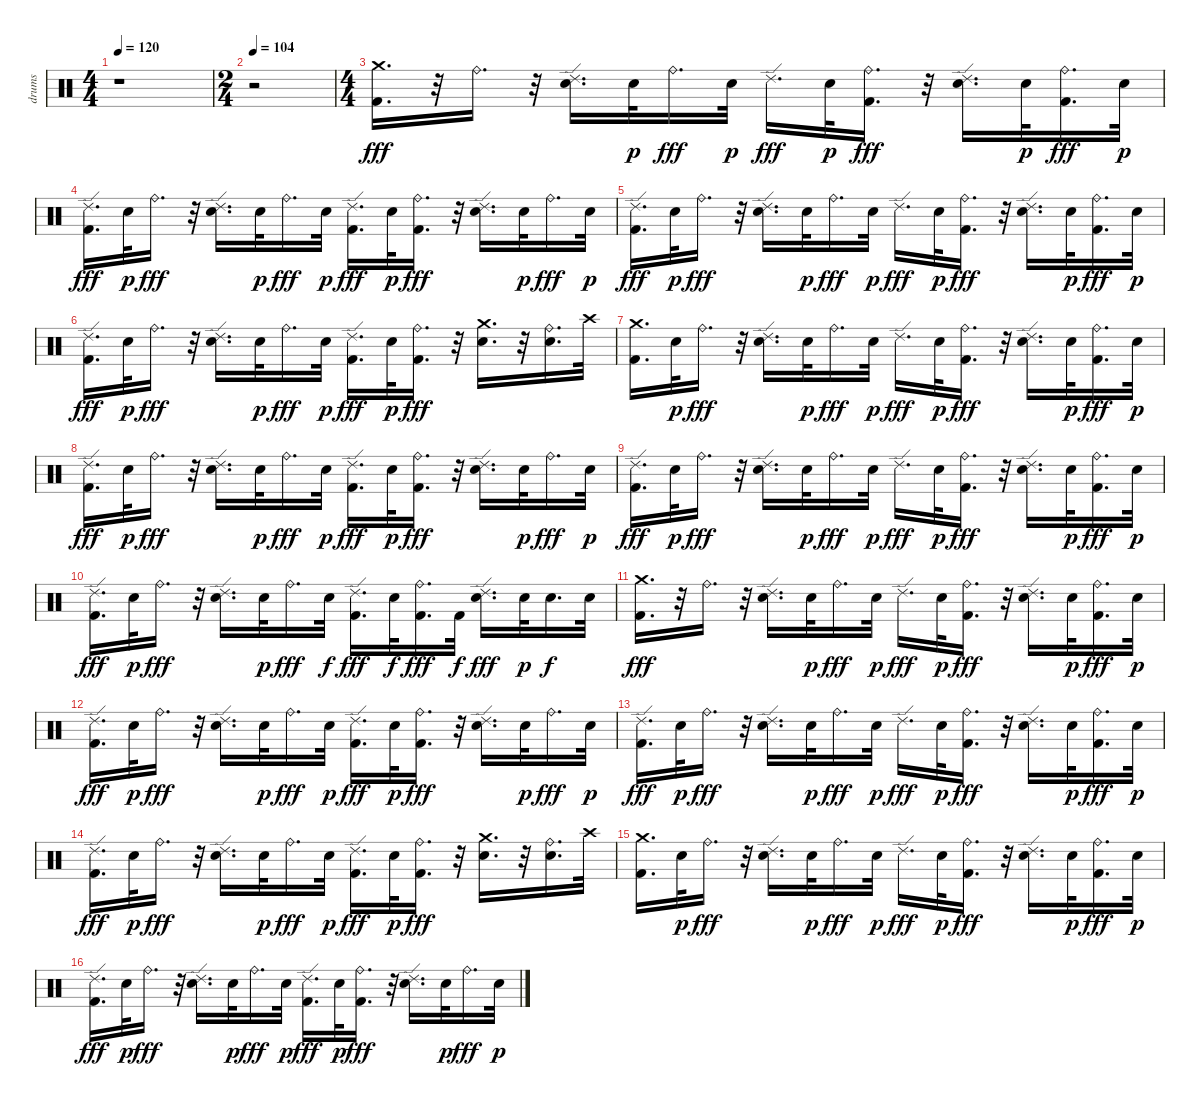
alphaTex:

\track ("drums" "drums") {instrument percussion}
\staff {score}
\articulation defaults
\ts (4 4)
\tempo 120
\clef neutral
\ks c
r.1{dy fff} |
\ts (2 4)
\tempo 104
r.2 |
\ts (4 4)
("Kick (hit) 2" "Crash medium (hit)").16{d} r.32 "Ride (bell)".16{d} r.32 ("Electric Snare (hit)" "Ride (edge) 2").16{d} "Electric Snare (hit)".32{dy p} "Ride (bell)".16{d dy fff} "Electric Snare (hit)".32{dy p} "Ride (edge) 2".16{d dy fff} "Electric Snare (hit)".32{dy p} ("Kick (hit) 2" "Ride (bell)").16{d dy fff} r.32 ("Electric Snare (hit)" "Ride (edge) 2").16{d} "Electric Snare (hit)".32{dy p} ("Kick (hit) 2" "Ride (bell)").16{d dy fff} "Electric Snare (hit)".32{dy p} |
("Kick (hit) 2" "Ride (edge) 2").16{d dy fff} "Electric Snare (hit)".32{dy p} "Ride (bell)".16{d dy fff} r.32 ("Electric Snare (hit)" "Ride (edge) 2").16{d} "Electric Snare (hit)".32{dy p} "Ride (bell)".16{d dy fff} "Electric Snare (hit)".32{dy p} ("Kick (hit) 2" "Ride (edge) 2").16{d dy fff} "Electric Snare (hit)".32{dy p} ("Kick (hit) 2" "Ride (bell)").16{d dy fff} r.32 ("Electric Snare (hit)" "Ride (edge) 2").16{d} "Electric Snare (hit)".32{dy p} "Ride (bell)".16{d dy fff} "Electric Snare (hit)".32{dy p} |
("Kick (hit) 2" "Ride (edge) 2").16{d dy fff} "Electric Snare (hit)".32{dy p} "Ride (bell)".16{d dy fff} r.32 ("Electric Snare (hit)" "Ride (edge) 2").16{d} "Electric Snare (hit)".32{dy p} "Ride (bell)".16{d dy fff} "Electric Snare (hit)".32{dy p} "Ride (edge) 2".16{d dy fff} "Electric Snare (hit)".32{dy p} ("Kick (hit) 2" "Ride (bell)").16{d dy fff} r.32 ("Electric Snare (hit)" "Ride (edge) 2").16{d} "Electric Snare (hit)".32{dy p} ("Kick (hit) 2" "Ride (bell)").16{d dy fff} "Electric Snare (hit)".32{dy p} |
("Kick (hit) 2" "Ride (edge) 2").16{d dy fff} "Electric Snare (hit)".32{dy p} "Ride (bell)".16{d dy fff} r.32 ("Electric Snare (hit)" "Ride (edge) 2").16{d} "Electric Snare (hit)".32{dy p} "Ride (bell)".16{d dy fff} "Electric Snare (hit)".32{dy p} ("Kick (hit) 2" "Ride (edge) 2").16{d dy fff} "Electric Snare (hit)".32{dy p} ("Kick (hit) 2" "Ride (bell)").16{d dy fff} r.32 ("Electric Snare (hit)" "Crash medium (hit)").16{d} r.32 ("Electric Snare (hit)" "Ride (bell)").16{d} "Crash high (hit)".32 |
("Kick (hit) 2" "Crash medium (hit)").16{d} "Electric Snare (hit)".32{dy p} "Ride (bell)".16{d dy fff} r.32 ("Electric Snare (hit)" "Ride (edge) 2").16{d} "Electric Snare (hit)".32{dy p} "Ride (bell)".16{d dy fff} "Electric Snare (hit)".32{dy p} "Ride (edge) 2".16{d dy fff} "Electric Snare (hit)".32{dy p} ("Kick (hit) 2" "Ride (bell)").16{d dy fff} r.32 ("Electric Snare (hit)" "Ride (edge) 2").16{d} "Electric Snare (hit)".32{dy p} ("Kick (hit) 2" "Ride (bell)").16{d dy fff} "Electric Snare (hit)".32{dy p} |
("Kick (hit) 2" "Ride (edge) 2").16{d dy fff} "Electric Snare (hit)".32{dy p} "Ride (bell)".16{d dy fff} r.32 ("Electric Snare (hit)" "Ride (edge) 2").16{d} "Electric Snare (hit)".32{dy p} "Ride (bell)".16{d dy fff} "Electric Snare (hit)".32{dy p} ("Kick (hit) 2" "Ride (edge) 2").16{d dy fff} "Electric Snare (hit)".32{dy p} ("Kick (hit) 2" "Ride (bell)").16{d dy fff} r.32 ("Electric Snare (hit)" "Ride (edge) 2").16{d} "Electric Snare (hit)".32{dy p} "Ride (bell)".16{d dy fff} "Electric Snare (hit)".32{dy p} |
("Kick (hit) 2" "Ride (edge) 2").16{d dy fff} "Electric Snare (hit)".32{dy p} "Ride (bell)".16{d dy fff} r.32 ("Electric Snare (hit)" "Ride (edge) 2").16{d} "Electric Snare (hit)".32{dy p} "Ride (bell)".16{d dy fff} "Electric Snare (hit)".32{dy p} "Ride (edge) 2".16{d dy fff} "Electric Snare (hit)".32{dy p} ("Kick (hit) 2" "Ride (bell)").16{d dy fff} r.32 ("Electric Snare (hit)" "Ride (edge) 2").16{d} "Electric Snare (hit)".32{dy p} ("Kick (hit) 2" "Ride (bell)").16{d dy fff} "Electric Snare (hit)".32{dy p} |
("Kick (hit) 2" "Ride (edge) 2").16{d dy fff} "Electric Snare (hit)".32{dy p} "Ride (bell)".16{d dy fff} r.32 ("Electric Snare (hit)" "Ride (edge) 2").16{d} "Electric Snare (hit)".32{dy p} "Ride (bell)".16{d dy fff} "Electric Snare (hit)".32{dy f} ("Kick (hit) 2" "Ride (edge) 2").16{d dy fff} "Electric Snare (hit)".32{dy f} ("Kick (hit) 2" "Ride (bell)").16{d dy fff} "Kick (hit) 2".32{dy f} ("Electric Snare (hit)" "Ride (edge) 2").16{d dy fff} "Electric Snare (hit)".32{dy p} "Electric Snare (hit)".16{d dy f} "Electric Snare (hit)".32 |
("Kick (hit) 2" "Crash medium (hit)").16{d dy fff} r.32 "Ride (bell)".16{d} r.32 ("Electric Snare (hit)" "Ride (edge) 2").16{d} "Electric Snare (hit)".32{dy p} "Ride (bell)".16{d dy fff} "Electric Snare (hit)".32{dy p} "Ride (edge) 2".16{d dy fff} "Electric Snare (hit)".32{dy p} ("Kick (hit) 2" "Ride (bell)").16{d dy fff} r.32 ("Electric Snare (hit)" "Ride (edge) 2").16{d} "Electric Snare (hit)".32{dy p} ("Kick (hit) 2" "Ride (bell)").16{d dy fff} "Electric Snare (hit)".32{dy p} |
("Kick (hit) 2" "Ride (edge) 2").16{d dy fff} "Electric Snare (hit)".32{dy p} "Ride (bell)".16{d dy fff} r.32 ("Electric Snare (hit)" "Ride (edge) 2").16{d} "Electric Snare (hit)".32{dy p} "Ride (bell)".16{d dy fff} "Electric Snare (hit)".32{dy p} ("Kick (hit) 2" "Ride (edge) 2").16{d dy fff} "Electric Snare (hit)".32{dy p} ("Kick (hit) 2" "Ride (bell)").16{d dy fff} r.32 ("Electric Snare (hit)" "Ride (edge) 2").16{d} "Electric Snare (hit)".32{dy p} "Ride (bell)".16{d dy fff} "Electric Snare (hit)".32{dy p} |
("Kick (hit) 2" "Ride (edge) 2").16{d dy fff} "Electric Snare (hit)".32{dy p} "Ride (bell)".16{d dy fff} r.32 ("Electric Snare (hit)" "Ride (edge) 2").16{d} "Electric Snare (hit)".32{dy p} "Ride (bell)".16{d dy fff} "Electric Snare (hit)".32{dy p} "Ride (edge) 2".16{d dy fff} "Electric Snare (hit)".32{dy p} ("Kick (hit) 2" "Ride (bell)").16{d dy fff} r.32 ("Electric Snare (hit)" "Ride (edge) 2").16{d} "Electric Snare (hit)".32{dy p} ("Kick (hit) 2" "Ride (bell)").16{d dy fff} "Electric Snare (hit)".32{dy p} |
("Kick (hit) 2" "Ride (edge) 2").16{d dy fff} "Electric Snare (hit)".32{dy p} "Ride (bell)".16{d dy fff} r.32 ("Electric Snare (hit)" "Ride (edge) 2").16{d} "Electric Snare (hit)".32{dy p} "Ride (bell)".16{d dy fff} "Electric Snare (hit)".32{dy p} ("Kick (hit) 2" "Ride (edge) 2").16{d dy fff} "Electric Snare (hit)".32{dy p} ("Kick (hit) 2" "Ride (bell)").16{d dy fff} r.32 ("Electric Snare (hit)" "Crash medium (hit)").16{d} r.32 ("Electric Snare (hit)" "Ride (bell)").16{d} "Crash high (hit)".32 |
("Kick (hit) 2" "Crash medium (hit)").16{d} "Electric Snare (hit)".32{dy p} "Ride (bell)".16{d dy fff} r.32 ("Electric Snare (hit)" "Ride (edge) 2").16{d} "Electric Snare (hit)".32{dy p} "Ride (bell)".16{d dy fff} "Electric Snare (hit)".32{dy p} "Ride (edge) 2".16{d dy fff} "Electric Snare (hit)".32{dy p} ("Kick (hit) 2" "Ride (bell)").16{d dy fff} r.32 ("Electric Snare (hit)" "Ride (edge) 2").16{d} "Electric Snare (hit)".32{dy p} ("Kick (hit) 2" "Ride (bell)").16{d dy fff} "Electric Snare (hit)".32{dy p} |
("Kick (hit) 2" "Ride (edge) 2").16{d dy fff} "Electric Snare (hit)".32{dy p} "Ride (bell)".16{d dy fff} r.32 ("Electric Snare (hit)" "Ride (edge) 2").16{d} "Electric Snare (hit)".32{dy p} "Ride (bell)".16{d dy fff} "Electric Snare (hit)".32{dy p} ("Kick (hit) 2" "Ride (edge) 2").16{d dy fff} "Electric Snare (hit)".32{dy p} ("Kick (hit) 2" "Ride (bell)").16{d dy fff} r.32 ("Electric Snare (hit)" "Ride (edge) 2").16{d} "Electric Snare (hit)".32{dy p} "Ride (bell)".16{d dy fff} "Electric Snare (hit)".32{dy p}
